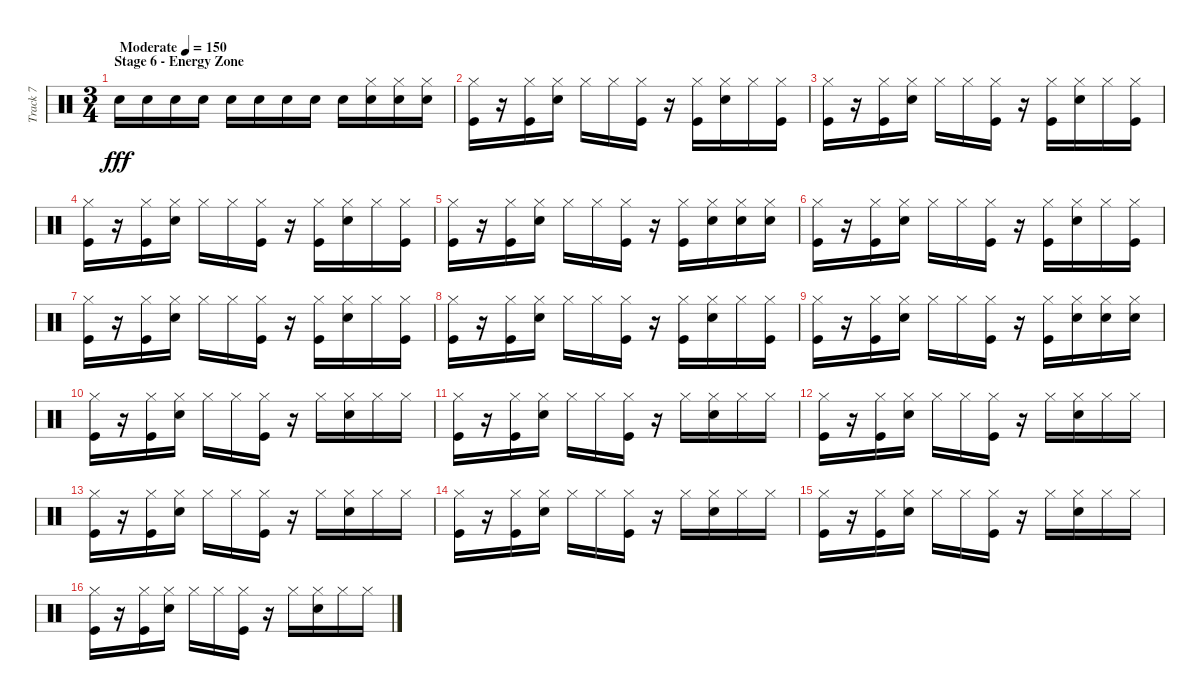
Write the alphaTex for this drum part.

\track ("Track 7" "Track 7") {instrument percussion}
\staff {score}
\articulation defaults
\ts (3 4)
\section ("" "Stage 6 - Energy Zone")
\tempo (150 "Moderate")
\clef neutral
\ks c "Snare (hit) 2".16{dy fff} "Snare (hit) 2".16 "Snare (hit) 2".16 "Snare (hit) 2".16 "Snare (hit) 2".16 "Snare (hit) 2".16 "Snare (hit) 2".16 "Snare (hit) 2".16 "Snare (hit) 2".16
("Snare (hit) 2" "Hi-Hat (closed)").16 ("Snare (hit) 2" "Hi-Hat (closed)").16 ("Snare (hit) 2" "Hi-Hat (closed)").16 |
("Kick (hit)" "Hi-Hat (closed)").16 r.16 ("Kick (hit)" "Hi-Hat (closed)").16 ("Snare (hit) 2" "Hi-Hat (closed)").16 "Hi-Hat (closed)".16 "Hi-Hat (closed)".16 ("Kick (hit)" "Hi-Hat (closed)").16 r.16 ("Kick (hit)" "Hi-Hat (closed)").16 ("Snare (hit) 2" "Hi-Hat (closed)").16 "Hi-Hat (closed)".16 ("Kick (hit)" "Hi-Hat (closed)").16 |
("Kick (hit)" "Hi-Hat (closed)").16 r.16 ("Kick (hit)" "Hi-Hat (closed)").16 ("Snare (hit) 2" "Hi-Hat (closed)").16 "Hi-Hat (closed)".16 "Hi-Hat (closed)".16 ("Kick (hit)" "Hi-Hat (closed)").16 r.16 ("Kick (hit)" "Hi-Hat (closed)").16 ("Snare (hit) 2" "Hi-Hat (closed)").16 "Hi-Hat (closed)".16 ("Kick (hit)" "Hi-Hat (closed)").16 |
("Kick (hit)" "Hi-Hat (closed)").16 r.16 ("Kick (hit)" "Hi-Hat (closed)").16 ("Snare (hit) 2" "Hi-Hat (closed)").16 "Hi-Hat (closed)".16 "Hi-Hat (closed)".16 ("Kick (hit)" "Hi-Hat (closed)").16 r.16 ("Kick (hit)" "Hi-Hat (closed)").16 ("Snare (hit) 2" "Hi-Hat (closed)").16 "Hi-Hat (closed)".16 ("Kick (hit)" "Hi-Hat (closed)").16 |
("Kick (hit)" "Hi-Hat (closed)").16 r.16 ("Kick (hit)" "Hi-Hat (closed)").16 ("Snare (hit) 2" "Hi-Hat (closed)").16 "Hi-Hat (closed)".16 "Hi-Hat (closed)".16 ("Kick (hit)" "Hi-Hat (closed)").16 r.16 ("Kick (hit)" "Hi-Hat (closed)").16 ("Snare (hit) 2" "Hi-Hat (closed)").16 ("Snare (hit) 2" "Hi-Hat (closed)").16 ("Snare (hit) 2" "Hi-Hat (closed)").16 |
("Kick (hit)" "Hi-Hat (closed)").16 r.16 ("Kick (hit)" "Hi-Hat (closed)").16 ("Snare (hit) 2" "Hi-Hat (closed)").16 "Hi-Hat (closed)".16 "Hi-Hat (closed)".16 ("Kick (hit)" "Hi-Hat (closed)").16 r.16 ("Kick (hit)" "Hi-Hat (closed)").16 ("Snare (hit) 2" "Hi-Hat (closed)").16 "Hi-Hat (closed)".16 ("Kick (hit)" "Hi-Hat (closed)").16 |
("Kick (hit)" "Hi-Hat (closed)").16 r.16 ("Kick (hit)" "Hi-Hat (closed)").16 ("Snare (hit) 2" "Hi-Hat (closed)").16 "Hi-Hat (closed)".16 "Hi-Hat (closed)".16 ("Kick (hit)" "Hi-Hat (closed)").16 r.16 ("Kick (hit)" "Hi-Hat (closed)").16 ("Snare (hit) 2" "Hi-Hat (closed)").16 "Hi-Hat (closed)".16 ("Kick (hit)" "Hi-Hat (closed)").16 |
("Kick (hit)" "Hi-Hat (closed)").16 r.16 ("Kick (hit)" "Hi-Hat (closed)").16 ("Snare (hit) 2" "Hi-Hat (closed)").16 "Hi-Hat (closed)".16 "Hi-Hat (closed)".16 ("Kick (hit)" "Hi-Hat (closed)").16 r.16 ("Kick (hit)" "Hi-Hat (closed)").16 ("Snare (hit) 2" "Hi-Hat (closed)").16 "Hi-Hat (closed)".16 ("Kick (hit)" "Hi-Hat (closed)").16 |
("Kick (hit)" "Hi-Hat (closed)").16 r.16 ("Kick (hit)" "Hi-Hat (closed)").16 ("Snare (hit) 2" "Hi-Hat (closed)").16 "Hi-Hat (closed)".16 "Hi-Hat (closed)".16 ("Kick (hit)" "Hi-Hat (closed)").16 r.16 ("Kick (hit)" "Hi-Hat (closed)").16 ("Snare (hit) 2" "Hi-Hat (closed)").16 ("Snare (hit) 2" "Hi-Hat (closed)").16 ("Snare (hit) 2" "Hi-Hat (closed)").16 |
("Kick (hit)" "Hi-Hat (closed)").16 r.16 ("Kick (hit)" "Hi-Hat (closed)").16 ("Snare (hit) 2" "Hi-Hat (closed)").16 "Hi-Hat (closed)".16 "Hi-Hat (closed)".16 ("Kick (hit)" "Hi-Hat (closed)").16 r.16 "Hi-Hat (closed)".16 ("Snare (hit) 2" "Hi-Hat (closed)").16 "Hi-Hat (closed)".16 "Hi-Hat (closed)".16 |
("Kick (hit)" "Hi-Hat (closed)").16 r.16 ("Kick (hit)" "Hi-Hat (closed)").16 ("Snare (hit) 2" "Hi-Hat (closed)").16 "Hi-Hat (closed)".16 "Hi-Hat (closed)".16 ("Kick (hit)" "Hi-Hat (closed)").16 r.16 "Hi-Hat (closed)".16 ("Snare (hit) 2" "Hi-Hat (closed)").16 "Hi-Hat (closed)".16 "Hi-Hat (closed)".16 |
("Kick (hit)" "Hi-Hat (closed)").16 r.16 ("Kick (hit)" "Hi-Hat (closed)").16 ("Snare (hit) 2" "Hi-Hat (closed)").16 "Hi-Hat (closed)".16 "Hi-Hat (closed)".16 ("Kick (hit)" "Hi-Hat (closed)").16 r.16 "Hi-Hat (closed)".16 ("Snare (hit) 2" "Hi-Hat (closed)").16 "Hi-Hat (closed)".16 "Hi-Hat (closed)".16 |
("Kick (hit)" "Hi-Hat (closed)").16 r.16 ("Kick (hit)" "Hi-Hat (closed)").16 ("Snare (hit) 2" "Hi-Hat (closed)").16 "Hi-Hat (closed)".16 "Hi-Hat (closed)".16 ("Kick (hit)" "Hi-Hat (closed)").16 r.16 "Hi-Hat (closed)".16 ("Snare (hit) 2" "Hi-Hat (closed)").16 "Hi-Hat (closed)".16 "Hi-Hat (closed)".16 |
("Kick (hit)" "Hi-Hat (closed)").16 r.16 ("Kick (hit)" "Hi-Hat (closed)").16 ("Snare (hit) 2" "Hi-Hat (closed)").16 "Hi-Hat (closed)".16 "Hi-Hat (closed)".16 ("Kick (hit)" "Hi-Hat (closed)").16 r.16 "Hi-Hat (closed)".16 ("Snare (hit) 2" "Hi-Hat (closed)").16 "Hi-Hat (closed)".16 "Hi-Hat (closed)".16 |
("Kick (hit)" "Hi-Hat (closed)").16 r.16 ("Kick (hit)" "Hi-Hat (closed)").16 ("Snare (hit) 2" "Hi-Hat (closed)").16 "Hi-Hat (closed)".16 "Hi-Hat (closed)".16 ("Kick (hit)" "Hi-Hat (closed)").16 r.16 "Hi-Hat (closed)".16 ("Snare (hit) 2" "Hi-Hat (closed)").16 "Hi-Hat (closed)".16 "Hi-Hat (closed)".16 |
("Kick (hit)" "Hi-Hat (closed)").16 r.16 ("Kick (hit)" "Hi-Hat (closed)").16 ("Snare (hit) 2" "Hi-Hat (closed)").16 "Hi-Hat (closed)".16 "Hi-Hat (closed)".16 ("Kick (hit)" "Hi-Hat (closed)").16 r.16 "Hi-Hat (closed)".16 ("Snare (hit) 2" "Hi-Hat (closed)").16 "Hi-Hat (closed)".16 "Hi-Hat (closed)".16
